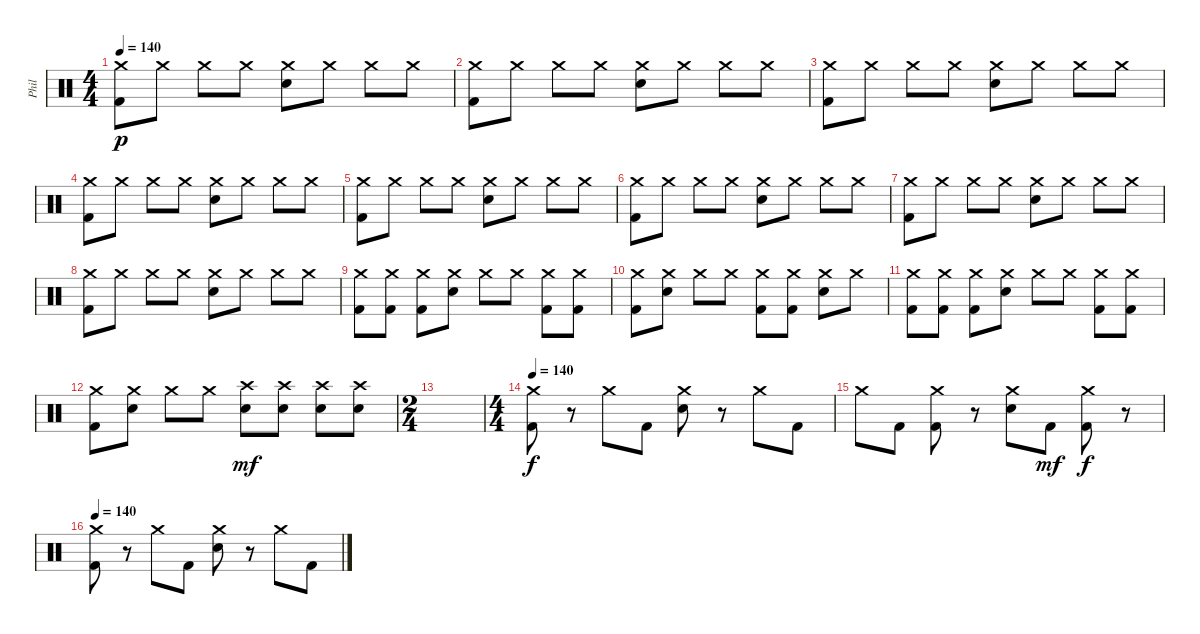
\track ("Phil" "Phil") {instrument percussion}
\staff {score}
\articulation defaults
\ts (4 4)
\tempo 140
\clef neutral
\ks c
("Crash medium (hit)" "Kick (hit) 2").8{dy p} "Crash medium (hit)".8 "Crash medium (hit)".8 "Crash medium (hit)".8 ("Crash medium (hit)" "Snare (hit) 2").8 "Crash medium (hit)".8 "Crash medium (hit)".8 "Crash medium (hit)".8 |
("Crash medium (hit)" "Kick (hit) 2").8 "Crash medium (hit)".8 "Crash medium (hit)".8 "Crash medium (hit)".8 ("Crash medium (hit)" "Snare (hit) 2").8 "Crash medium (hit)".8 "Crash medium (hit)".8 "Crash medium (hit)".8 |
("Crash medium (hit)" "Kick (hit) 2").8 "Crash medium (hit)".8 "Crash medium (hit)".8 "Crash medium (hit)".8 ("Crash medium (hit)" "Snare (hit) 2").8 "Crash medium (hit)".8 "Crash medium (hit)".8 "Crash medium (hit)".8 |
("Crash medium (hit)" "Kick (hit) 2").8 "Crash medium (hit)".8 "Crash medium (hit)".8 "Crash medium (hit)".8 ("Crash medium (hit)" "Snare (hit) 2").8 "Crash medium (hit)".8 "Crash medium (hit)".8 "Crash medium (hit)".8 |
("Crash medium (hit)" "Kick (hit) 2").8 "Crash medium (hit)".8 "Crash medium (hit)".8 "Crash medium (hit)".8 ("Crash medium (hit)" "Snare (hit) 2").8 "Crash medium (hit)".8 "Crash medium (hit)".8 "Crash medium (hit)".8 |
("Crash medium (hit)" "Kick (hit) 2").8 "Crash medium (hit)".8 "Crash medium (hit)".8 "Crash medium (hit)".8 ("Crash medium (hit)" "Snare (hit) 2").8 "Crash medium (hit)".8 "Crash medium (hit)".8 "Crash medium (hit)".8 |
("Crash medium (hit)" "Kick (hit) 2").8 "Crash medium (hit)".8 "Crash medium (hit)".8 "Crash medium (hit)".8 ("Crash medium (hit)" "Snare (hit) 2").8 "Crash medium (hit)".8 "Crash medium (hit)".8 "Crash medium (hit)".8 |
("Crash medium (hit)" "Kick (hit) 2").8 "Crash medium (hit)".8 "Crash medium (hit)".8 "Crash medium (hit)".8 ("Crash medium (hit)" "Snare (hit) 2").8 "Crash medium (hit)".8 "Crash medium (hit)".8 "Crash medium (hit)".8 |
("Crash medium (hit)" "Kick (hit) 2").8 ("Crash medium (hit)" "Kick (hit) 2").8 ("Crash medium (hit)" "Kick (hit) 2").8 ("Crash medium (hit)" "Snare (hit) 2").8 "Crash medium (hit)".8 "Crash medium (hit)".8 ("Crash medium (hit)" "Kick (hit) 2").8 ("Crash medium (hit)" "Kick (hit) 2").8 |
("Crash medium (hit)" "Kick (hit) 2").8 ("Crash medium (hit)" "Snare (hit) 2").8 "Crash medium (hit)".8 "Crash medium (hit)".8 ("Crash medium (hit)" "Kick (hit) 2").8 ("Crash medium (hit)" "Kick (hit) 2").8 ("Crash medium (hit)" "Snare (hit) 2").8 "Crash medium (hit)".8 |
("Crash medium (hit)" "Kick (hit) 2").8 ("Crash medium (hit)" "Kick (hit) 2").8 ("Crash medium (hit)" "Kick (hit) 2").8 ("Crash medium (hit)" "Snare (hit) 2").8 "Crash medium (hit)".8 "Crash medium (hit)".8 ("Crash medium (hit)" "Kick (hit) 2").8 ("Crash medium (hit)" "Kick (hit) 2").8 |
("Crash medium (hit)" "Kick (hit) 2").8 ("Crash medium (hit)" "Snare (hit) 2").8 "Crash medium (hit)".8 "Crash medium (hit)".8 ("Crash high (hit)" "Snare (hit) 2").8{dy mf} ("Crash high (hit)" "Snare (hit) 2").8 ("Crash high (hit)" "Snare (hit) 2").8 ("Crash high (hit)" "Snare (hit) 2").8 |
\ts (2 4)
|
\ts (4 4)
\tempo 140
("Crash medium (hit)" "Kick (hit) 2").8{dy f} r.8 "Crash medium (hit)".8 "Kick (hit) 2".8 ("Crash medium (hit)" "Snare (hit) 2").8 r.8 "Crash medium (hit)".8 "Kick (hit) 2".8 |
"Crash medium (hit)".8 "Kick (hit) 2".8 ("Crash medium (hit)" "Kick (hit) 2").8 r.8 ("Crash medium (hit)" "Snare (hit) 2").8 "Kick (hit) 2".8{dy mf} ("Crash medium (hit)" "Kick (hit) 2").8{dy f} r.8 |
\tempo 140
("Crash medium (hit)" "Kick (hit) 2").8 r.8 "Crash medium (hit)".8 "Kick (hit) 2".8 ("Crash medium (hit)" "Snare (hit) 2").8 r.8 "Crash medium (hit)".8 "Kick (hit) 2".8
